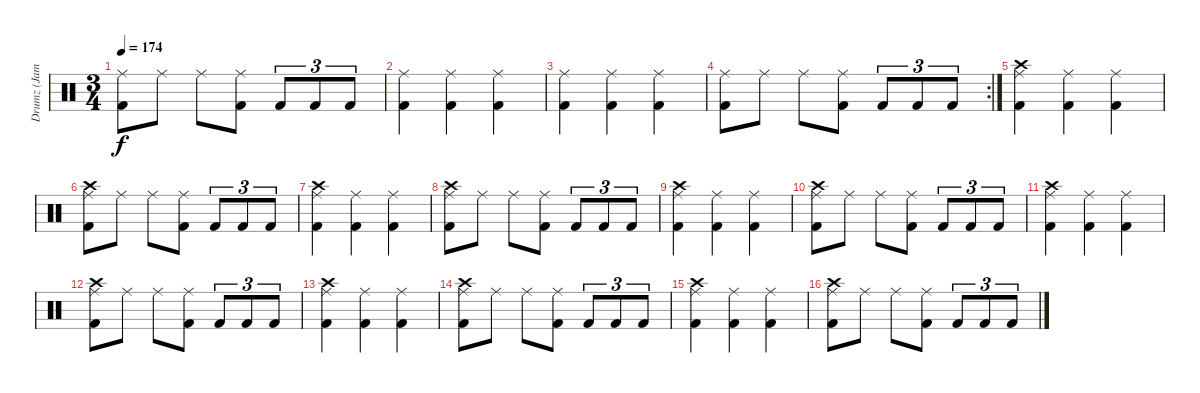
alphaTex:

\track ("Drumz (James Kottak)" "Drumz (Jam") {instrument percussion}
\staff {score}
\articulation defaults
\ts (3 4)
\tempo 174
\clef neutral
\ks c
("Ride (middle)" "Kick (hit) 2").8{dy f} "Ride (middle)".8 "Ride (middle)".8 ("Ride (middle)" "Kick (hit) 2").8 "Kick (hit) 2".8{tu (3 2)} "Kick (hit) 2".8{tu (3 2)} "Kick (hit) 2".8{tu (3 2)} |
("Ride (middle)" "Kick (hit) 2").4 ("Kick (hit) 2" "Ride (middle)").4 ("Ride (middle)" "Kick (hit) 2").4 |
("Ride (middle)" "Kick (hit) 2").4 ("Kick (hit) 2" "Ride (middle)").4 ("Ride (middle)" "Kick (hit) 2").4 |
\rc 2
("Ride (middle)" "Kick (hit) 2").8 "Ride (middle)".8 "Ride (middle)".8 ("Ride (middle)" "Kick (hit) 2").8 "Kick (hit) 2".8{tu (3 2)} "Kick (hit) 2".8{tu (3 2)} "Kick (hit) 2".8{tu (3 2)} |
("Ride (middle)" "Crash high (hit)" "Kick (hit) 2").4 ("Kick (hit) 2" "Ride (middle)").4 ("Ride (middle)" "Kick (hit) 2").4 |
("Ride (middle)" "Crash high (hit)" "Kick (hit) 2").8 "Ride (middle)".8 "Ride (middle)".8 ("Ride (middle)" "Kick (hit) 2").8 "Kick (hit) 2".8{tu (3 2)} "Kick (hit) 2".8{tu (3 2)} "Kick (hit) 2".8{tu (3 2)} |
("Ride (middle)" "Crash high (hit)" "Kick (hit) 2").4 ("Kick (hit) 2" "Ride (middle)").4 ("Ride (middle)" "Kick (hit) 2").4 |
("Ride (middle)" "Crash high (hit)" "Kick (hit) 2").8 "Ride (middle)".8 "Ride (middle)".8 ("Ride (middle)" "Kick (hit) 2").8 "Kick (hit) 2".8{tu (3 2)} "Kick (hit) 2".8{tu (3 2)} "Kick (hit) 2".8{tu (3 2)} |
("Ride (middle)" "Crash high (hit)" "Kick (hit) 2").4 ("Kick (hit) 2" "Ride (middle)").4 ("Ride (middle)" "Kick (hit) 2").4 |
("Ride (middle)" "Crash high (hit)" "Kick (hit) 2").8 "Ride (middle)".8 "Ride (middle)".8 ("Ride (middle)" "Kick (hit) 2").8 "Kick (hit) 2".8{tu (3 2)} "Kick (hit) 2".8{tu (3 2)} "Kick (hit) 2".8{tu (3 2)} |
("Ride (middle)" "Crash high (hit)" "Kick (hit) 2").4 ("Kick (hit) 2" "Ride (middle)").4 ("Ride (middle)" "Kick (hit) 2").4 |
("Ride (middle)" "Crash high (hit)" "Kick (hit) 2").8 "Ride (middle)".8 "Ride (middle)".8 ("Ride (middle)" "Kick (hit) 2").8 "Kick (hit) 2".8{tu (3 2)} "Kick (hit) 2".8{tu (3 2)} "Kick (hit) 2".8{tu (3 2)} |
("Ride (middle)" "Crash high (hit)" "Kick (hit) 2").4 ("Kick (hit) 2" "Ride (middle)").4 ("Ride (middle)" "Kick (hit) 2").4 |
("Ride (middle)" "Crash high (hit)" "Kick (hit) 2").8 "Ride (middle)".8 "Ride (middle)".8 ("Ride (middle)" "Kick (hit) 2").8 "Kick (hit) 2".8{tu (3 2)} "Kick (hit) 2".8{tu (3 2)} "Kick (hit) 2".8{tu (3 2)} |
("Ride (middle)" "Crash high (hit)" "Kick (hit) 2").4 ("Kick (hit) 2" "Ride (middle)").4 ("Ride (middle)" "Kick (hit) 2").4 |
("Ride (middle)" "Crash high (hit)" "Kick (hit) 2").8 "Ride (middle)".8 "Ride (middle)".8 ("Ride (middle)" "Kick (hit) 2").8 "Kick (hit) 2".8{tu (3 2)} "Kick (hit) 2".8{tu (3 2)} "Kick (hit) 2".8{tu (3 2)}
